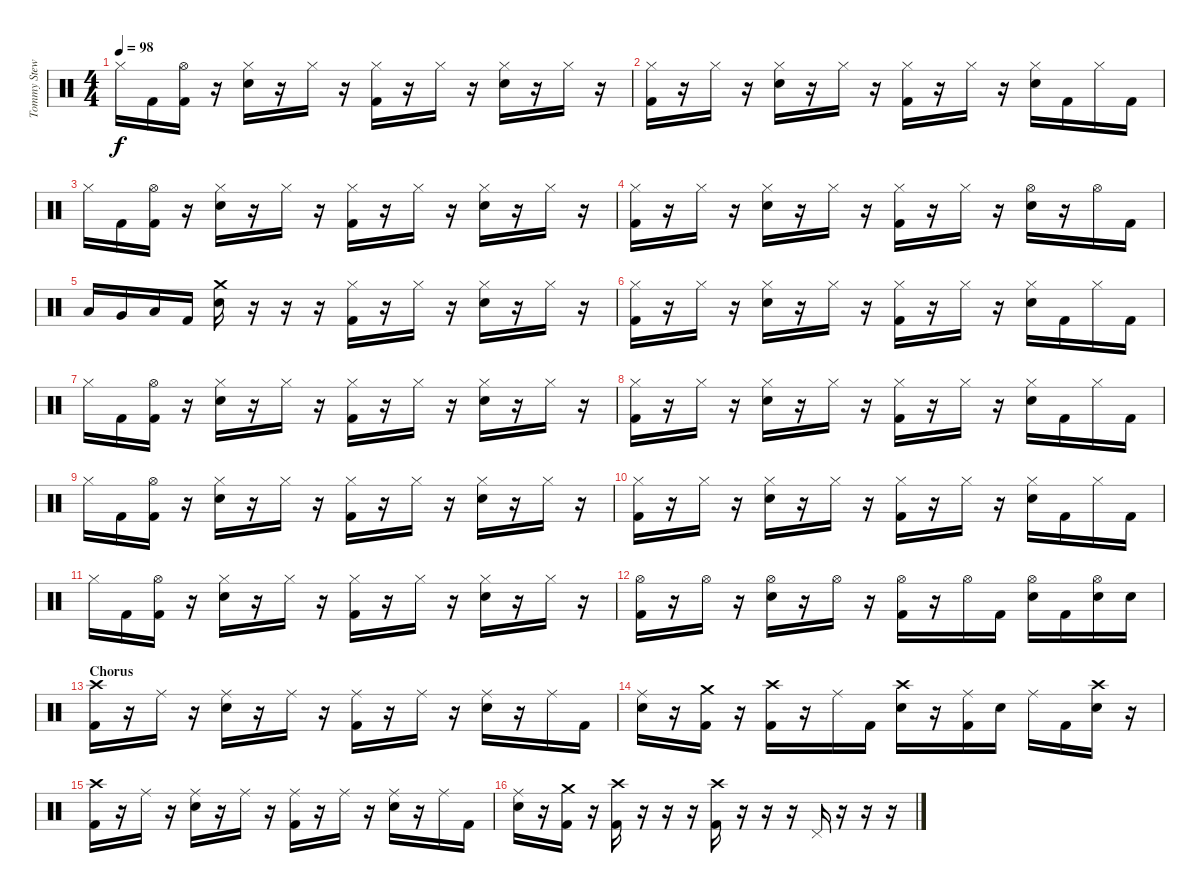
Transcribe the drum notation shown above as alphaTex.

\track ("Tommy Stewart - Drums" "Tommy Stew") {instrument percussion}
\staff {score}
\articulation defaults
\ts (4 4)
\tempo 98
\clef neutral
\ks c "Hi-Hat (closed)".16{dy f} "Kick (hit) 2".16
("Hi-Hat (open)" "Kick (hit) 2").16 r.16 ("Hi-Hat (closed)" "Snare (hit) 2").16 r.16 "Hi-Hat (closed)".16 r.16 ("Hi-Hat (closed)" "Kick (hit) 2").16 r.16 "Hi-Hat (closed)".16 r.16 ("Hi-Hat (closed)" "Snare (hit) 2").16 r.16 "Hi-Hat (closed)".16 r.16 |
("Hi-Hat (closed)" "Kick (hit) 2").16 r.16 "Hi-Hat (closed)".16 r.16 ("Hi-Hat (closed)" "Snare (hit) 2").16 r.16 "Hi-Hat (closed)".16 r.16 ("Hi-Hat (closed)" "Kick (hit) 2").16 r.16 "Hi-Hat (closed)".16 r.16 ("Hi-Hat (closed)" "Snare (hit) 2").16 "Kick (hit) 2".16 "Hi-Hat (closed)".16 "Kick (hit) 2".16 |
"Hi-Hat (closed)".16 "Kick (hit) 2".16 ("Hi-Hat (open)" "Kick (hit) 2").16 r.16 ("Hi-Hat (closed)" "Snare (hit) 2").16 r.16 "Hi-Hat (closed)".16 r.16 ("Hi-Hat (closed)" "Kick (hit) 2").16 r.16 "Hi-Hat (closed)".16 r.16 ("Hi-Hat (closed)" "Snare (hit) 2").16 r.16 "Hi-Hat (closed)".16 r.16 |
("Hi-Hat (closed)" "Kick (hit) 2").16 r.16 "Hi-Hat (closed)".16 r.16 ("Hi-Hat (closed)" "Snare (hit) 2").16 r.16 "Hi-Hat (closed)".16 r.16 ("Hi-Hat (closed)" "Kick (hit) 2").16 r.16 "Hi-Hat (closed)".16 r.16 ("Hi-Hat (open)" "Snare (hit) 2").16 r.16 "Hi-Hat (open)".16 "Kick (hit) 2".16 |
"Low Tom (hit)".16 "Very Low Tom (hit)".16 "Low Floor Tom (hit)".16 "Kick (hit) 2".16 ("Crash medium (hit)" "Snare (hit) 2").16 r.16 r.16 r.16 ("Hi-Hat (closed)" "Kick (hit) 2").16 r.16 "Hi-Hat (closed)".16 r.16 ("Hi-Hat (closed)" "Snare (hit) 2").16 r.16 "Hi-Hat (closed)".16 r.16 |
("Hi-Hat (closed)" "Kick (hit) 2").16 r.16 "Hi-Hat (closed)".16 r.16 ("Hi-Hat (closed)" "Snare (hit) 2").16 r.16 "Hi-Hat (closed)".16 r.16 ("Hi-Hat (closed)" "Kick (hit) 2").16 r.16 "Hi-Hat (closed)".16 r.16 ("Hi-Hat (closed)" "Snare (hit) 2").16 "Kick (hit) 2".16 "Hi-Hat (closed)".16 "Kick (hit) 2".16 |
"Hi-Hat (closed)".16 "Kick (hit) 2".16 ("Hi-Hat (open)" "Kick (hit) 2").16 r.16 ("Hi-Hat (closed)" "Snare (hit) 2").16 r.16 "Hi-Hat (closed)".16 r.16 ("Hi-Hat (closed)" "Kick (hit) 2").16 r.16 "Hi-Hat (closed)".16 r.16 ("Hi-Hat (closed)" "Snare (hit) 2").16 r.16 "Hi-Hat (closed)".16 r.16 |
("Hi-Hat (closed)" "Kick (hit) 2").16 r.16 "Hi-Hat (closed)".16 r.16 ("Hi-Hat (closed)" "Snare (hit) 2").16 r.16 "Hi-Hat (closed)".16 r.16 ("Hi-Hat (closed)" "Kick (hit) 2").16 r.16 "Hi-Hat (closed)".16 r.16 ("Hi-Hat (closed)" "Snare (hit) 2").16 "Kick (hit) 2".16 "Hi-Hat (closed)".16 "Kick (hit) 2".16 |
"Hi-Hat (closed)".16 "Kick (hit) 2".16 ("Hi-Hat (open)" "Kick (hit) 2").16 r.16 ("Hi-Hat (closed)" "Snare (hit) 2").16 r.16 "Hi-Hat (closed)".16 r.16 ("Hi-Hat (closed)" "Kick (hit) 2").16 r.16 "Hi-Hat (closed)".16 r.16 ("Hi-Hat (closed)" "Snare (hit) 2").16 r.16 "Hi-Hat (closed)".16 r.16 |
("Hi-Hat (closed)" "Kick (hit) 2").16 r.16 "Hi-Hat (closed)".16 r.16 ("Hi-Hat (closed)" "Snare (hit) 2").16 r.16 "Hi-Hat (closed)".16 r.16 ("Hi-Hat (closed)" "Kick (hit) 2").16 r.16 "Hi-Hat (closed)".16 r.16 ("Hi-Hat (closed)" "Snare (hit) 2").16 "Kick (hit) 2".16 "Hi-Hat (closed)".16 "Kick (hit) 2".16 |
"Hi-Hat (closed)".16 "Kick (hit) 2".16 ("Hi-Hat (open)" "Kick (hit) 2").16 r.16 ("Hi-Hat (closed)" "Snare (hit) 2").16 r.16 "Hi-Hat (closed)".16 r.16 ("Hi-Hat (closed)" "Kick (hit) 2").16 r.16 "Hi-Hat (closed)".16 r.16 ("Hi-Hat (closed)" "Snare (hit) 2").16 r.16 "Hi-Hat (closed)".16 r.16 |
("Hi-Hat (open)" "Kick (hit) 2").16 r.16 "Hi-Hat (open)".16 r.16 ("Hi-Hat (open)" "Snare (hit) 2").16 r.16 "Hi-Hat (open)".16 r.16 ("Hi-Hat (open)" "Kick (hit) 2").16 r.16 "Hi-Hat (open)".16 "Kick (hit) 2".16 ("Hi-Hat (open)" "Snare (hit) 2").16 "Kick (hit) 2".16 ("Hi-Hat (open)" "Snare (hit) 2").16 "Snare (hit) 2".16 |
\section ("" "Chorus")
("Crash high (hit)" "Kick (hit) 2").16 r.16 "Ride (middle)".16 r.16 ("Ride (middle)" "Snare (hit) 2").16 r.16 "Ride (middle)".16 r.16 ("Ride (middle)" "Kick (hit) 2").16 r.16 "Ride (middle)".16 r.16 ("Ride (middle)" "Snare (hit) 2").16 r.16 "Ride (middle)".16 "Kick (hit) 2".16 |
("Ride (middle)" "Snare (hit) 2").16 r.16 ("Crash medium (hit)" "Kick (hit) 2").16 r.16 ("Crash high (hit)" "Kick (hit) 2").16 r.16 "Ride (middle)".16 "Kick (hit) 2".16 ("Crash high (hit)" "Snare (hit) 2").16 r.16 ("Ride (middle)" "Kick (hit) 2").16 "Snare (hit) 2".16 "Ride (middle)".16 "Kick (hit) 2".16 ("Crash high (hit)" "Snare (hit) 2").16 r.16 |
("Crash high (hit)" "Kick (hit) 2").16 r.16 "Ride (middle)".16 r.16 ("Ride (middle)" "Snare (hit) 2").16 r.16 "Ride (middle)".16 r.16 ("Ride (middle)" "Kick (hit) 2").16 r.16 "Ride (middle)".16 r.16 ("Ride (middle)" "Snare (hit) 2").16 r.16 "Ride (middle)".16 "Kick (hit) 2".16 |
("Ride (middle)" "Snare (hit) 2").16 r.16 ("Crash medium (hit)" "Kick (hit) 2").16 r.16 ("Crash high (hit)" "Kick (hit) 2").16 r.16 r.16 r.16 ("Crash high (hit)" "Kick (hit) 2").16 r.16 r.16 r.16 "Pedal Hi-Hat (hit)".16 r.16 r.16 r.16
